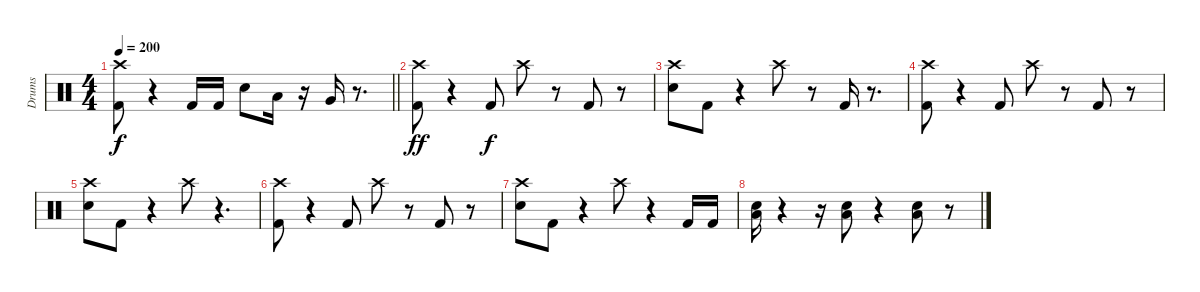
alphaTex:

\track ("Drums" "Drums") {instrument percussion}
\staff {score}
\articulation defaults
\ts (4 4)
\tempo 200
\clef neutral
\barLineRight lightlight
\ks c
("Kick (hit) 2" "Crash high (hit)").8{dy f} r.4 "Kick (hit) 2".16 "Kick (hit) 2".16 "Snare (hit) 2".8 "Low Tom (hit)".16 r.16 "Very Low Tom (hit)".16 r.8{d} |
\section ("" " ")
("Kick (hit) 2" "Crash high (hit)").8{dy ff} r.4 "Kick (hit) 2".8{dy f} "Crash high (hit)".8 r.8 "Kick (hit) 2".8 r.8 |
("Snare (hit) 2" "Crash high (hit)").8 "Kick (hit) 2".8 r.4 "Crash high (hit)".8 r.8 "Kick (hit) 2".16 r.8{d} |
("Kick (hit) 2" "Crash high (hit)").8 r.4 "Kick (hit) 2".8 "Crash high (hit)".8 r.8 "Kick (hit) 2".8 r.8 |
("Snare (hit) 2" "Crash high (hit)").8 "Kick (hit) 2".8 r.4 "Crash high (hit)".8 r.4{d} |
("Kick (hit) 2" "Crash high (hit)").8 r.4 "Kick (hit) 2".8 "Crash high (hit)".8 r.8 "Kick (hit) 2".8 r.8 |
("Snare (hit) 2" "Crash high (hit)").8 "Kick (hit) 2".8 r.4 "Crash high (hit)".8 r.4 "Kick (hit) 2".16 "Kick (hit) 2".16 |
("Snare (hit) 2" "Low Floor Tom (hit)").16 r.4 r.16 ("Snare (hit) 2" "Low Floor Tom (hit)").8 r.4 ("Snare (hit) 2" "Low Floor Tom (hit)").8 r.8
